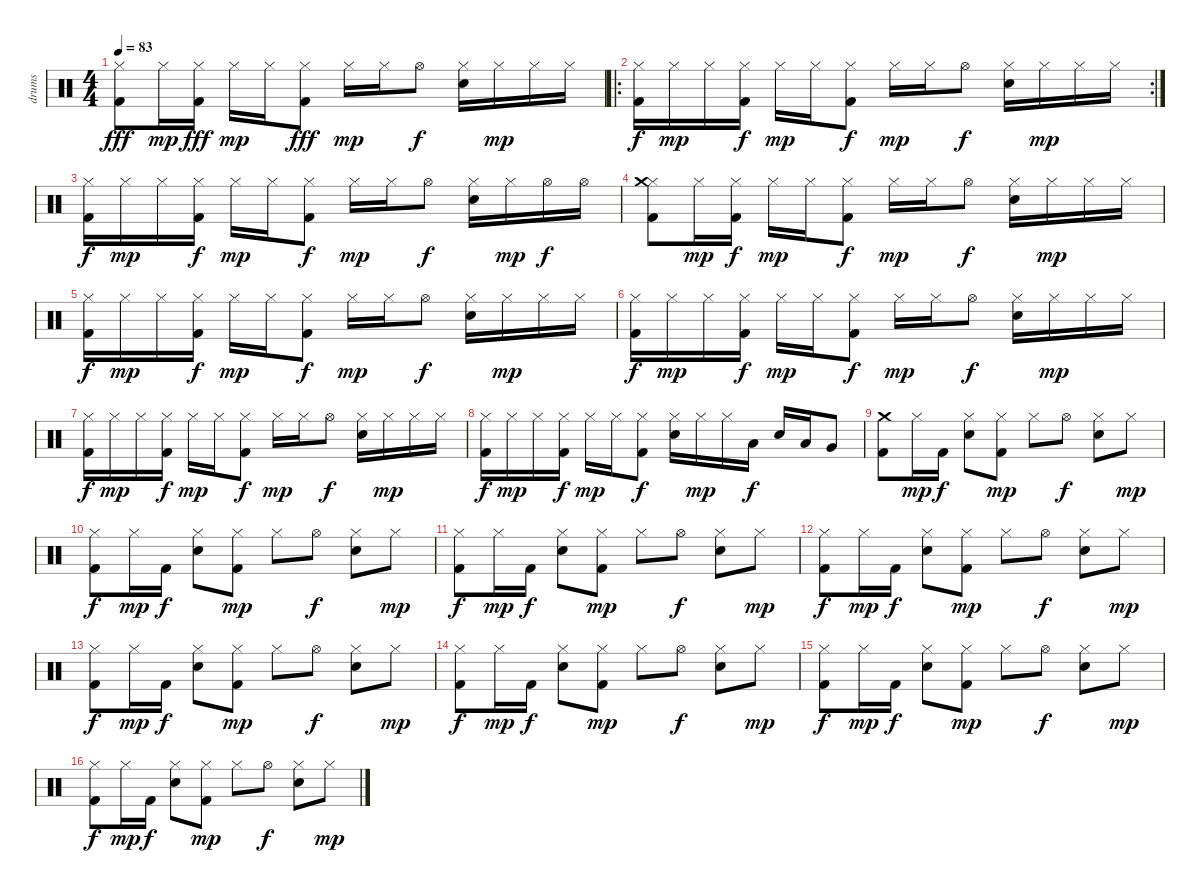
\track ("drums" "drums") {instrument percussion}
\staff {score}
\articulation defaults
\ts (4 4)
\tempo 83
\clef neutral
\ks c
("Kick (hit) 2" "Hi-Hat (closed)").8{dy fff} "Hi-Hat (closed)".16{dy mp} ("Kick (hit) 2" "Hi-Hat (closed)").16{dy fff} "Hi-Hat (closed)".16{dy mp} "Hi-Hat (closed)".16 ("Kick (hit) 2" "Hi-Hat (closed)").8{dy fff} "Hi-Hat (closed)".16{dy mp} "Hi-Hat (closed)".16 "Hi-Hat (open)".8{dy f} ("Hi-Hat (closed)" "Electric Snare (hit)").16 "Hi-Hat (closed)".16{dy mp} "Hi-Hat (closed)".16 "Hi-Hat (closed)".16 |
\ro
\rc 2
("Kick (hit) 2" "Hi-Hat (closed)").16{dy f} "Hi-Hat (closed)".16{dy mp} "Hi-Hat (closed)".16 ("Kick (hit) 2" "Hi-Hat (closed)").16{dy f} "Hi-Hat (closed)".16{dy mp} "Hi-Hat (closed)".16 ("Kick (hit) 2" "Hi-Hat (closed)").8{dy f} "Hi-Hat (closed)".16{dy mp} "Hi-Hat (closed)".16 "Hi-Hat (open)".8{dy f} ("Hi-Hat (closed)" "Electric Snare (hit)").16 "Hi-Hat (closed)".16{dy mp} "Hi-Hat (closed)".16 "Hi-Hat (closed)".16 |
("Kick (hit) 2" "Hi-Hat (closed)").16{dy f} "Hi-Hat (closed)".16{dy mp} "Hi-Hat (closed)".16 ("Kick (hit) 2" "Hi-Hat (closed)").16{dy f} "Hi-Hat (closed)".16{dy mp} "Hi-Hat (closed)".16 ("Kick (hit) 2" "Hi-Hat (closed)").8{dy f} "Hi-Hat (closed)".16{dy mp} "Hi-Hat (closed)".16 "Hi-Hat (open)".8{dy f} ("Hi-Hat (closed)" "Electric Snare (hit)").16 "Hi-Hat (closed)".16{dy mp} "Hi-Hat (open)".16{dy f} "Hi-Hat (open)".16 |
("Kick (hit) 2" "Hi-Hat (closed)" "Crash medium (hit)").8 "Hi-Hat (closed)".16{dy mp} ("Kick (hit) 2" "Hi-Hat (closed)").16{dy f} "Hi-Hat (closed)".16{dy mp} "Hi-Hat (closed)".16 ("Kick (hit) 2" "Hi-Hat (closed)").8{dy f} "Hi-Hat (closed)".16{dy mp} "Hi-Hat (closed)".16 "Hi-Hat (open)".8{dy f} ("Hi-Hat (closed)" "Electric Snare (hit)").16 "Hi-Hat (closed)".16{dy mp} "Hi-Hat (closed)".16 "Hi-Hat (closed)".16 |
("Kick (hit) 2" "Hi-Hat (closed)").16{dy f} "Hi-Hat (closed)".16{dy mp} "Hi-Hat (closed)".16 ("Kick (hit) 2" "Hi-Hat (closed)").16{dy f} "Hi-Hat (closed)".16{dy mp} "Hi-Hat (closed)".16 ("Kick (hit) 2" "Hi-Hat (closed)").8{dy f} "Hi-Hat (closed)".16{dy mp} "Hi-Hat (closed)".16 "Hi-Hat (open)".8{dy f} ("Hi-Hat (closed)" "Electric Snare (hit)").16 "Hi-Hat (closed)".16{dy mp} "Hi-Hat (closed)".16 "Hi-Hat (closed)".16 |
("Kick (hit) 2" "Hi-Hat (closed)").16{dy f} "Hi-Hat (closed)".16{dy mp} "Hi-Hat (closed)".16 ("Kick (hit) 2" "Hi-Hat (closed)").16{dy f} "Hi-Hat (closed)".16{dy mp} "Hi-Hat (closed)".16 ("Kick (hit) 2" "Hi-Hat (closed)").8{dy f} "Hi-Hat (closed)".16{dy mp} "Hi-Hat (closed)".16 "Hi-Hat (open)".8{dy f} ("Hi-Hat (closed)" "Electric Snare (hit)").16 "Hi-Hat (closed)".16{dy mp} "Hi-Hat (closed)".16 "Hi-Hat (closed)".16 |
("Kick (hit) 2" "Hi-Hat (closed)").16{dy f} "Hi-Hat (closed)".16{dy mp} "Hi-Hat (closed)".16 ("Kick (hit) 2" "Hi-Hat (closed)").16{dy f} "Hi-Hat (closed)".16{dy mp} "Hi-Hat (closed)".16 ("Kick (hit) 2" "Hi-Hat (closed)").8{dy f} "Hi-Hat (closed)".16{dy mp} "Hi-Hat (closed)".16 "Hi-Hat (open)".8{dy f} ("Hi-Hat (closed)" "Electric Snare (hit)").16 "Hi-Hat (closed)".16{dy mp} "Hi-Hat (closed)".16 "Hi-Hat (closed)".16 |
("Kick (hit) 2" "Hi-Hat (closed)").16{dy f} "Hi-Hat (closed)".16{dy mp} "Hi-Hat (closed)".16 ("Kick (hit) 2" "Hi-Hat (closed)").16{dy f} "Hi-Hat (closed)".16{dy mp} "Hi-Hat (closed)".16 ("Kick (hit) 2" "Hi-Hat (closed)").8{dy f} ("Hi-Hat (closed)" "Electric Snare (hit)").16 "Hi-Hat (closed)".16{dy mp} "Hi-Hat (closed)".16 "Low Tom (hit)".16{dy f} "Electric Snare (hit)".16 "Low Tom (hit)".16 "Very Low Tom (hit)".8 |
("Kick (hit) 2" "Crash medium (hit)").8 "Hi-Hat (closed)".16{dy mp} "Kick (hit) 2".16{dy f} ("Hi-Hat (closed)" "Electric Snare (hit)").8 ("Kick (hit) 2" "Hi-Hat (closed)").8{dy mp} "Hi-Hat (closed)".8 "Hi-Hat (open)".8{dy f} ("Hi-Hat (closed)" "Electric Snare (hit)").8 "Hi-Hat (closed)".8{dy mp} |
("Kick (hit) 2" "Hi-Hat (closed)").8{dy f} "Hi-Hat (closed)".16{dy mp} "Kick (hit) 2".16{dy f} ("Hi-Hat (closed)" "Electric Snare (hit)").8 ("Kick (hit) 2" "Hi-Hat (closed)").8{dy mp} "Hi-Hat (closed)".8 "Hi-Hat (open)".8{dy f} ("Hi-Hat (closed)" "Electric Snare (hit)").8 "Hi-Hat (closed)".8{dy mp} |
("Kick (hit) 2" "Hi-Hat (closed)").8{dy f} "Hi-Hat (closed)".16{dy mp} "Kick (hit) 2".16{dy f} ("Hi-Hat (closed)" "Electric Snare (hit)").8 ("Kick (hit) 2" "Hi-Hat (closed)").8{dy mp} "Hi-Hat (closed)".8 "Hi-Hat (open)".8{dy f} ("Hi-Hat (closed)" "Electric Snare (hit)").8 "Hi-Hat (closed)".8{dy mp} |
("Kick (hit) 2" "Hi-Hat (closed)").8{dy f} "Hi-Hat (closed)".16{dy mp} "Kick (hit) 2".16{dy f} ("Hi-Hat (closed)" "Electric Snare (hit)").8 ("Kick (hit) 2" "Hi-Hat (closed)").8{dy mp} "Hi-Hat (closed)".8 "Hi-Hat (open)".8{dy f} ("Hi-Hat (closed)" "Electric Snare (hit)").8 "Hi-Hat (closed)".8{dy mp} |
("Kick (hit) 2" "Hi-Hat (closed)").8{dy f} "Hi-Hat (closed)".16{dy mp} "Kick (hit) 2".16{dy f} ("Hi-Hat (closed)" "Electric Snare (hit)").8 ("Kick (hit) 2" "Hi-Hat (closed)").8{dy mp} "Hi-Hat (closed)".8 "Hi-Hat (open)".8{dy f} ("Hi-Hat (closed)" "Electric Snare (hit)").8 "Hi-Hat (closed)".8{dy mp} |
("Kick (hit) 2" "Hi-Hat (closed)").8{dy f} "Hi-Hat (closed)".16{dy mp} "Kick (hit) 2".16{dy f} ("Hi-Hat (closed)" "Electric Snare (hit)").8 ("Kick (hit) 2" "Hi-Hat (closed)").8{dy mp} "Hi-Hat (closed)".8 "Hi-Hat (open)".8{dy f} ("Hi-Hat (closed)" "Electric Snare (hit)").8 "Hi-Hat (closed)".8{dy mp} |
("Kick (hit) 2" "Hi-Hat (closed)").8{dy f} "Hi-Hat (closed)".16{dy mp} "Kick (hit) 2".16{dy f} ("Hi-Hat (closed)" "Electric Snare (hit)").8 ("Kick (hit) 2" "Hi-Hat (closed)").8{dy mp} "Hi-Hat (closed)".8 "Hi-Hat (open)".8{dy f} ("Hi-Hat (closed)" "Electric Snare (hit)").8 "Hi-Hat (closed)".8{dy mp} |
("Kick (hit) 2" "Hi-Hat (closed)").8{dy f} "Hi-Hat (closed)".16{dy mp} "Kick (hit) 2".16{dy f} ("Hi-Hat (closed)" "Electric Snare (hit)").8 ("Kick (hit) 2" "Hi-Hat (closed)").8{dy mp} "Hi-Hat (closed)".8 "Hi-Hat (open)".8{dy f} ("Hi-Hat (closed)" "Electric Snare (hit)").8 "Hi-Hat (closed)".8{dy mp}
